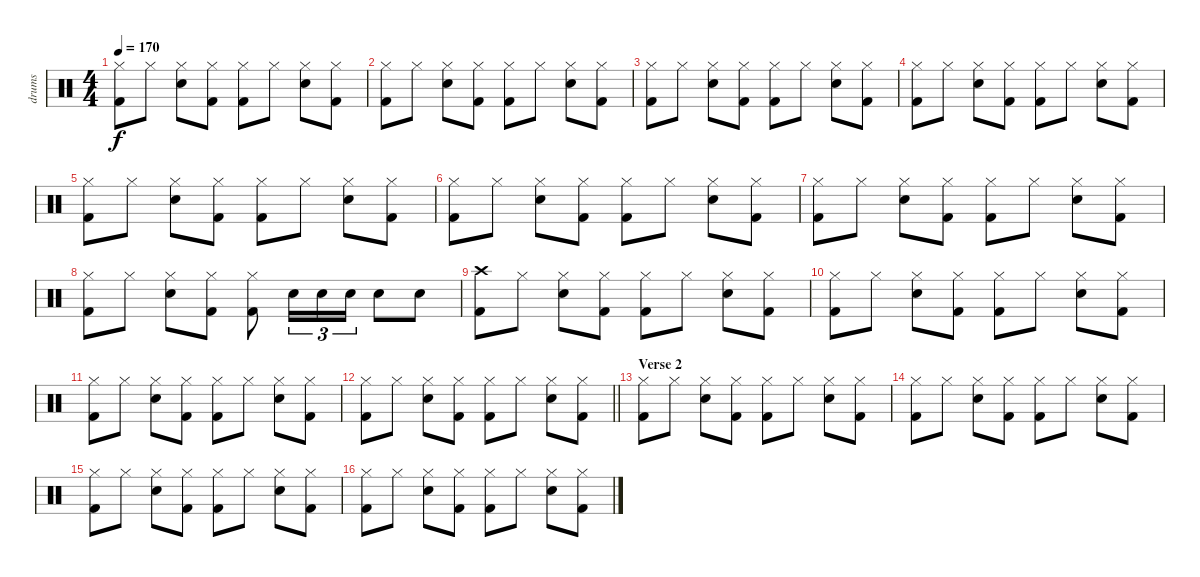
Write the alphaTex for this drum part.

\track ("drums" "drums") {instrument percussion}
\staff {score}
\articulation defaults
\ts (4 4)
\tempo 170
\clef neutral
\ks c
("Hi-Hat (closed)" "Kick (hit) 2").8{dy f} "Hi-Hat (closed)".8 ("Hi-Hat (closed)" "Snare (hit) 2").8 ("Hi-Hat (closed)" "Kick (hit) 2").8 ("Hi-Hat (closed)" "Kick (hit) 2").8 "Hi-Hat (closed)".8 ("Hi-Hat (closed)" "Snare (hit) 2").8 ("Hi-Hat (closed)" "Kick (hit) 2").8 |
("Hi-Hat (closed)" "Kick (hit) 2").8 "Hi-Hat (closed)".8 ("Hi-Hat (closed)" "Snare (hit) 2").8 ("Hi-Hat (closed)" "Kick (hit) 2").8 ("Hi-Hat (closed)" "Kick (hit) 2").8 "Hi-Hat (closed)".8 ("Hi-Hat (closed)" "Snare (hit) 2").8 ("Hi-Hat (closed)" "Kick (hit) 2").8 |
("Hi-Hat (closed)" "Kick (hit) 2").8 "Hi-Hat (closed)".8 ("Hi-Hat (closed)" "Snare (hit) 2").8 ("Hi-Hat (closed)" "Kick (hit) 2").8 ("Hi-Hat (closed)" "Kick (hit) 2").8 "Hi-Hat (closed)".8 ("Hi-Hat (closed)" "Snare (hit) 2").8 ("Hi-Hat (closed)" "Kick (hit) 2").8 |
("Hi-Hat (closed)" "Kick (hit) 2").8 "Hi-Hat (closed)".8 ("Hi-Hat (closed)" "Snare (hit) 2").8 ("Hi-Hat (closed)" "Kick (hit) 2").8 ("Hi-Hat (closed)" "Kick (hit) 2").8 "Hi-Hat (closed)".8 ("Hi-Hat (closed)" "Snare (hit) 2").8 ("Hi-Hat (closed)" "Kick (hit) 2").8 |
("Hi-Hat (closed)" "Kick (hit) 2").8 "Hi-Hat (closed)".8 ("Hi-Hat (closed)" "Snare (hit) 2").8 ("Hi-Hat (closed)" "Kick (hit) 2").8 ("Hi-Hat (closed)" "Kick (hit) 2").8 "Hi-Hat (closed)".8 ("Hi-Hat (closed)" "Snare (hit) 2").8 ("Hi-Hat (closed)" "Kick (hit) 2").8 |
("Hi-Hat (closed)" "Kick (hit) 2").8 "Hi-Hat (closed)".8 ("Hi-Hat (closed)" "Snare (hit) 2").8 ("Hi-Hat (closed)" "Kick (hit) 2").8 ("Hi-Hat (closed)" "Kick (hit) 2").8 "Hi-Hat (closed)".8 ("Hi-Hat (closed)" "Snare (hit) 2").8 ("Hi-Hat (closed)" "Kick (hit) 2").8 |
("Hi-Hat (closed)" "Kick (hit) 2").8 "Hi-Hat (closed)".8 ("Hi-Hat (closed)" "Snare (hit) 2").8 ("Hi-Hat (closed)" "Kick (hit) 2").8 ("Hi-Hat (closed)" "Kick (hit) 2").8 "Hi-Hat (closed)".8 ("Hi-Hat (closed)" "Snare (hit) 2").8 ("Hi-Hat (closed)" "Kick (hit) 2").8 |
("Hi-Hat (closed)" "Kick (hit) 2").8 "Hi-Hat (closed)".8 ("Hi-Hat (closed)" "Snare (hit) 2").8 ("Hi-Hat (closed)" "Kick (hit) 2").8 ("Hi-Hat (closed)" "Kick (hit) 2").8 "Snare (hit) 2".16{tu (3 2)} "Snare (hit) 2".16{tu (3 2)} "Snare (hit) 2".16{tu (3 2)} "Snare (hit) 2".8 "Snare (hit) 2".8 |
("Crash high (hit)" "Kick (hit) 2").8 "Hi-Hat (closed)".8 ("Hi-Hat (closed)" "Snare (hit) 2").8 ("Hi-Hat (closed)" "Kick (hit) 2").8 ("Hi-Hat (closed)" "Kick (hit) 2").8 "Hi-Hat (closed)".8 ("Hi-Hat (closed)" "Snare (hit) 2").8 ("Hi-Hat (closed)" "Kick (hit) 2").8 |
("Hi-Hat (closed)" "Kick (hit) 2").8 "Hi-Hat (closed)".8 ("Hi-Hat (closed)" "Snare (hit) 2").8 ("Hi-Hat (closed)" "Kick (hit) 2").8 ("Hi-Hat (closed)" "Kick (hit) 2").8 "Hi-Hat (closed)".8 ("Hi-Hat (closed)" "Snare (hit) 2").8 ("Hi-Hat (closed)" "Kick (hit) 2").8 |
("Hi-Hat (closed)" "Kick (hit) 2").8 "Hi-Hat (closed)".8 ("Hi-Hat (closed)" "Snare (hit) 2").8 ("Hi-Hat (closed)" "Kick (hit) 2").8 ("Hi-Hat (closed)" "Kick (hit) 2").8 "Hi-Hat (closed)".8 ("Hi-Hat (closed)" "Snare (hit) 2").8 ("Hi-Hat (closed)" "Kick (hit) 2").8 |
\barLineRight lightlight
("Hi-Hat (closed)" "Kick (hit) 2").8 "Hi-Hat (closed)".8 ("Hi-Hat (closed)" "Snare (hit) 2").8 ("Hi-Hat (closed)" "Kick (hit) 2").8 ("Hi-Hat (closed)" "Kick (hit) 2").8 "Hi-Hat (closed)".8 ("Hi-Hat (closed)" "Snare (hit) 2").8 ("Hi-Hat (closed)" "Kick (hit) 2").8 |
\section ("" "Verse 2")
("Hi-Hat (closed)" "Kick (hit) 2").8 "Hi-Hat (closed)".8 ("Hi-Hat (closed)" "Snare (hit) 2").8 ("Hi-Hat (closed)" "Kick (hit) 2").8 ("Hi-Hat (closed)" "Kick (hit) 2").8 "Hi-Hat (closed)".8 ("Hi-Hat (closed)" "Snare (hit) 2").8 ("Hi-Hat (closed)" "Kick (hit) 2").8 |
("Hi-Hat (closed)" "Kick (hit) 2").8 "Hi-Hat (closed)".8 ("Hi-Hat (closed)" "Snare (hit) 2").8 ("Hi-Hat (closed)" "Kick (hit) 2").8 ("Hi-Hat (closed)" "Kick (hit) 2").8 "Hi-Hat (closed)".8 ("Hi-Hat (closed)" "Snare (hit) 2").8 ("Hi-Hat (closed)" "Kick (hit) 2").8 |
("Hi-Hat (closed)" "Kick (hit) 2").8 "Hi-Hat (closed)".8 ("Hi-Hat (closed)" "Snare (hit) 2").8 ("Hi-Hat (closed)" "Kick (hit) 2").8 ("Hi-Hat (closed)" "Kick (hit) 2").8 "Hi-Hat (closed)".8 ("Hi-Hat (closed)" "Snare (hit) 2").8 ("Hi-Hat (closed)" "Kick (hit) 2").8 |
("Hi-Hat (closed)" "Kick (hit) 2").8 "Hi-Hat (closed)".8 ("Hi-Hat (closed)" "Snare (hit) 2").8 ("Hi-Hat (closed)" "Kick (hit) 2").8 ("Hi-Hat (closed)" "Kick (hit) 2").8 "Hi-Hat (closed)".8 ("Hi-Hat (closed)" "Snare (hit) 2").8 ("Hi-Hat (closed)" "Kick (hit) 2").8
